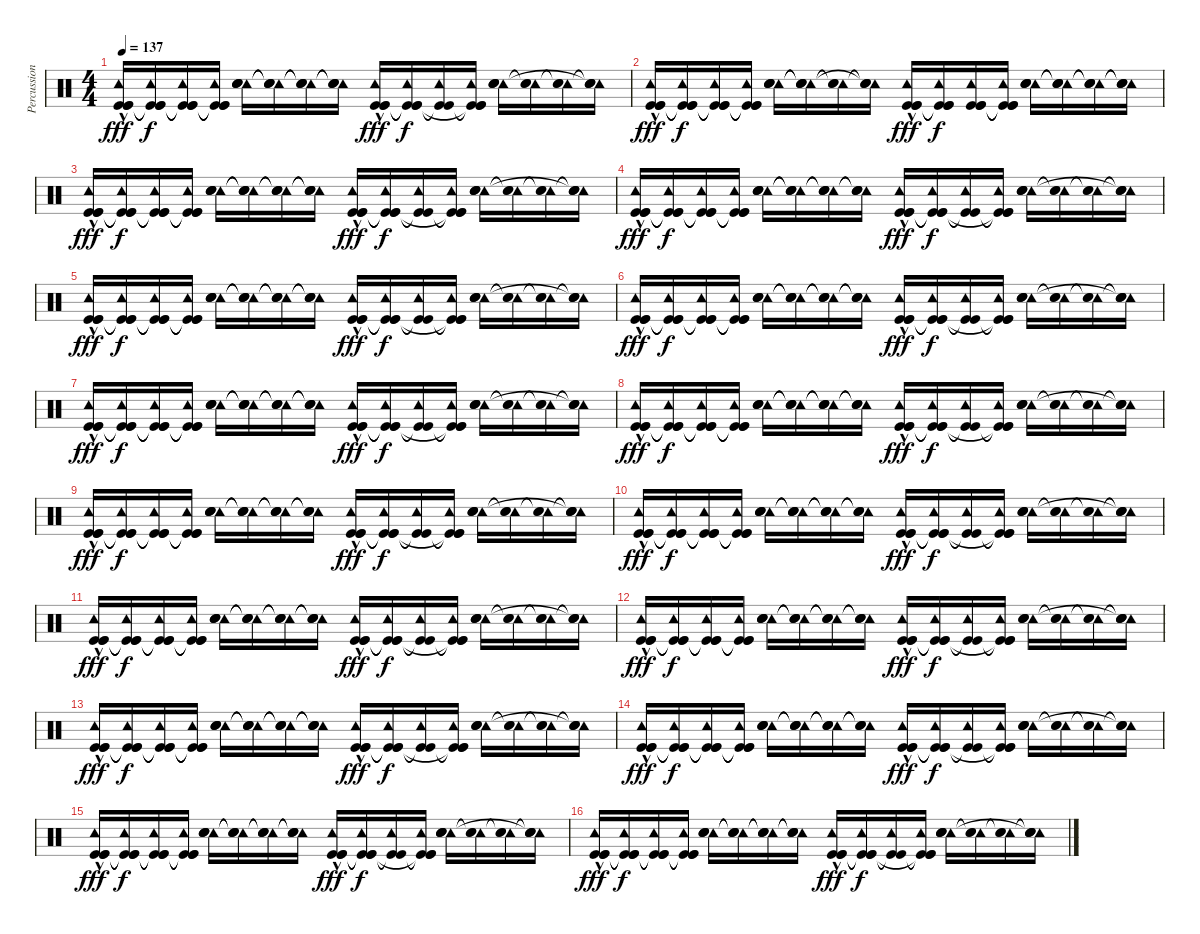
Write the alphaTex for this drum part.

\track ("Percussion" "Percussion") {instrument percussion}
\staff {score}
\articulation defaults
\ts (4 4)
\tempo 137
\clef neutral
\ks c
("Tambourine (hit)"{hac} "Kick (hit)" "Kick (hit)" "Kick (hit)").16{dy fff} ("Tambourine (hit)" "Kick (hit)"{t} "Kick (hit)"{t} "Kick (hit)"{t}).16{dy f} ("Tambourine (hit)" "Kick (hit)"{t} "Kick (hit)"{t} "Kick (hit)"{t}).16 ("Tambourine (hit)" "Kick (hit)"{t} "Kick (hit)"{t} "Kick (hit)"{t}).16 ("Tambourine (hit)" "Snare (hit) 2" "Snare (hit) 2" "Snare (hit) 2").16 ("Tambourine (hit)" "Snare (hit) 2"{t} "Snare (hit) 2"{t} "Snare (hit) 2"{t}).16 ("Tambourine (hit)" "Snare (hit) 2"{t} "Snare (hit) 2"{t} "Snare (hit) 2"{t}).16 ("Tambourine (hit)" "Snare (hit) 2"{t} "Snare (hit) 2"{t} "Snare (hit) 2"{t}).16 ("Tambourine (hit)"{hac} "Kick (hit)" "Kick (hit)" "Kick (hit)").16{dy fff} ("Tambourine (hit)" "Kick (hit)"{t} "Kick (hit)"{t} "Kick (hit)"{t}).16{dy f} ("Tambourine (hit)" "Kick (hit)"{t} "Kick (hit)"{t}).16 ("Tambourine (hit)" "Kick (hit)"{t} "Kick (hit)"{t} "Kick (hit)"{t}).16 ("Tambourine (hit)" "Snare (hit) 2" "Snare (hit) 2" "Snare (hit) 2").16 ("Tambourine (hit)" "Snare (hit) 2"{t} "Snare (hit) 2"{t}).16 ("Tambourine (hit)" "Snare (hit) 2"{t} "Snare (hit) 2"{t}).16 ("Tambourine (hit)" "Snare (hit) 2"{t} "Snare (hit) 2"{t} "Snare (hit) 2"{t}).16 |
("Tambourine (hit)"{hac} "Kick (hit)" "Kick (hit)" "Kick (hit)").16{dy fff} ("Tambourine (hit)" "Kick (hit)"{t} "Kick (hit)"{t} "Kick (hit)"{t}).16{dy f} ("Tambourine (hit)" "Kick (hit)"{t} "Kick (hit)"{t} "Kick (hit)"{t}).16 ("Tambourine (hit)" "Kick (hit)"{t} "Kick (hit)"{t} "Kick (hit)"{t}).16 ("Tambourine (hit)" "Snare (hit) 2" "Snare (hit) 2" "Snare (hit) 2").16 ("Tambourine (hit)" "Snare (hit) 2"{t} "Snare (hit) 2"{t} "Snare (hit) 2"{t}).16 ("Tambourine (hit)" "Snare (hit) 2"{t} "Snare (hit) 2"{t}).16 ("Tambourine (hit)" "Snare (hit) 2"{t} "Snare (hit) 2"{t} "Snare (hit) 2"{t}).16 ("Tambourine (hit)"{hac} "Kick (hit)" "Kick (hit)" "Kick (hit)").16{dy fff} ("Tambourine (hit)" "Kick (hit)"{t} "Kick (hit)"{t} "Kick (hit)"{t}).16{dy f} ("Tambourine (hit)" "Kick (hit)" "Kick (hit)" "Kick (hit)").16 ("Tambourine (hit)" "Kick (hit)"{t} "Kick (hit)"{t} "Kick (hit)"{t}).16 ("Tambourine (hit)" "Snare (hit) 2" "Snare (hit) 2" "Snare (hit) 2").16 ("Tambourine (hit)" "Snare (hit) 2"{t} "Snare (hit) 2"{t} "Snare (hit) 2"{t}).16 ("Tambourine (hit)" "Snare (hit) 2"{t} "Snare (hit) 2"{t} "Snare (hit) 2"{t}).16 ("Tambourine (hit)" "Snare (hit) 2"{t} "Snare (hit) 2"{t} "Snare (hit) 2"{t}).16 |
("Tambourine (hit)"{hac} "Kick (hit)" "Kick (hit)" "Kick (hit)").16{dy fff} ("Tambourine (hit)" "Kick (hit)"{t} "Kick (hit)"{t} "Kick (hit)"{t}).16{dy f} ("Tambourine (hit)" "Kick (hit)"{t} "Kick (hit)"{t} "Kick (hit)"{t}).16 ("Tambourine (hit)" "Kick (hit)"{t} "Kick (hit)"{t} "Kick (hit)"{t}).16 ("Tambourine (hit)" "Snare (hit) 2" "Snare (hit) 2" "Snare (hit) 2").16 ("Tambourine (hit)" "Snare (hit) 2"{t} "Snare (hit) 2"{t} "Snare (hit) 2"{t}).16 ("Tambourine (hit)" "Snare (hit) 2"{t} "Snare (hit) 2"{t} "Snare (hit) 2"{t}).16 ("Tambourine (hit)" "Snare (hit) 2"{t} "Snare (hit) 2"{t} "Snare (hit) 2"{t}).16 ("Tambourine (hit)"{hac} "Kick (hit)" "Kick (hit)" "Kick (hit)").16{dy fff} ("Tambourine (hit)" "Kick (hit)"{t} "Kick (hit)"{t} "Kick (hit)"{t}).16{dy f} ("Tambourine (hit)" "Kick (hit)"{t} "Kick (hit)"{t}).16 ("Tambourine (hit)" "Kick (hit)"{t} "Kick (hit)"{t} "Kick (hit)"{t}).16 ("Tambourine (hit)" "Snare (hit) 2" "Snare (hit) 2" "Snare (hit) 2").16 ("Tambourine (hit)" "Snare (hit) 2"{t} "Snare (hit) 2"{t}).16 ("Tambourine (hit)" "Snare (hit) 2"{t} "Snare (hit) 2"{t}).16 ("Tambourine (hit)" "Snare (hit) 2"{t} "Snare (hit) 2"{t} "Snare (hit) 2"{t}).16 |
("Tambourine (hit)"{hac} "Kick (hit)" "Kick (hit)" "Kick (hit)").16{dy fff} ("Tambourine (hit)" "Kick (hit)"{t} "Kick (hit)"{t} "Kick (hit)"{t}).16{dy f} ("Tambourine (hit)" "Kick (hit)"{t} "Kick (hit)"{t} "Kick (hit)"{t}).16 ("Tambourine (hit)" "Kick (hit)"{t} "Kick (hit)"{t} "Kick (hit)"{t}).16 ("Tambourine (hit)" "Snare (hit) 2" "Snare (hit) 2" "Snare (hit) 2").16 ("Tambourine (hit)" "Snare (hit) 2"{t} "Snare (hit) 2"{t} "Snare (hit) 2"{t}).16 ("Tambourine (hit)" "Snare (hit) 2"{t} "Snare (hit) 2"{t} "Snare (hit) 2"{t}).16 ("Tambourine (hit)" "Snare (hit) 2"{t} "Snare (hit) 2"{t} "Snare (hit) 2"{t}).16 ("Tambourine (hit)"{hac} "Kick (hit)" "Kick (hit)" "Kick (hit)").16{dy fff} ("Tambourine (hit)" "Kick (hit)"{t} "Kick (hit)"{t} "Kick (hit)"{t}).16{dy f} ("Tambourine (hit)" "Kick (hit)"{t} "Kick (hit)"{t}).16 ("Tambourine (hit)" "Kick (hit)"{t} "Kick (hit)"{t} "Kick (hit)"{t}).16 ("Tambourine (hit)" "Snare (hit) 2" "Snare (hit) 2" "Snare (hit) 2").16 ("Tambourine (hit)" "Snare (hit) 2"{t} "Snare (hit) 2"{t}).16 ("Tambourine (hit)" "Snare (hit) 2"{t} "Snare (hit) 2"{t}).16 ("Tambourine (hit)" "Snare (hit) 2"{t} "Snare (hit) 2"{t} "Snare (hit) 2"{t}).16 |
("Tambourine (hit)"{hac} "Kick (hit)" "Kick (hit)" "Kick (hit)").16{dy fff} ("Tambourine (hit)" "Kick (hit)"{t} "Kick (hit)"{t} "Kick (hit)"{t}).16{dy f} ("Tambourine (hit)" "Kick (hit)"{t} "Kick (hit)"{t} "Kick (hit)"{t}).16 ("Tambourine (hit)" "Kick (hit)"{t} "Kick (hit)"{t} "Kick (hit)"{t}).16 ("Tambourine (hit)" "Snare (hit) 2" "Snare (hit) 2" "Snare (hit) 2").16 ("Tambourine (hit)" "Snare (hit) 2"{t} "Snare (hit) 2"{t} "Snare (hit) 2"{t}).16 ("Tambourine (hit)" "Snare (hit) 2"{t} "Snare (hit) 2"{t} "Snare (hit) 2"{t}).16 ("Tambourine (hit)" "Snare (hit) 2"{t} "Snare (hit) 2"{t} "Snare (hit) 2"{t}).16 ("Tambourine (hit)"{hac} "Kick (hit)" "Kick (hit)" "Kick (hit)").16{dy fff} ("Tambourine (hit)" "Kick (hit)"{t} "Kick (hit)"{t} "Kick (hit)"{t}).16{dy f} ("Tambourine (hit)" "Kick (hit)"{t} "Kick (hit)"{t}).16 ("Tambourine (hit)" "Kick (hit)"{t} "Kick (hit)"{t} "Kick (hit)"{t}).16 ("Tambourine (hit)" "Snare (hit) 2" "Snare (hit) 2" "Snare (hit) 2").16 ("Tambourine (hit)" "Snare (hit) 2"{t} "Snare (hit) 2"{t}).16 ("Tambourine (hit)" "Snare (hit) 2"{t} "Snare (hit) 2"{t}).16 ("Tambourine (hit)" "Snare (hit) 2"{t} "Snare (hit) 2"{t} "Snare (hit) 2"{t}).16 |
("Tambourine (hit)"{hac} "Kick (hit)" "Kick (hit)" "Kick (hit)").16{dy fff} ("Tambourine (hit)" "Kick (hit)"{t} "Kick (hit)"{t} "Kick (hit)"{t}).16{dy f} ("Tambourine (hit)" "Kick (hit)"{t} "Kick (hit)"{t} "Kick (hit)"{t}).16 ("Tambourine (hit)" "Kick (hit)"{t} "Kick (hit)"{t} "Kick (hit)"{t}).16 ("Tambourine (hit)" "Snare (hit) 2" "Snare (hit) 2" "Snare (hit) 2").16 ("Tambourine (hit)" "Snare (hit) 2"{t} "Snare (hit) 2"{t} "Snare (hit) 2"{t}).16 ("Tambourine (hit)" "Snare (hit) 2"{t} "Snare (hit) 2"{t} "Snare (hit) 2"{t}).16 ("Tambourine (hit)" "Snare (hit) 2"{t} "Snare (hit) 2"{t} "Snare (hit) 2"{t}).16 ("Tambourine (hit)"{hac} "Kick (hit)" "Kick (hit)" "Kick (hit)").16{dy fff} ("Tambourine (hit)" "Kick (hit)"{t} "Kick (hit)"{t} "Kick (hit)"{t}).16{dy f} ("Tambourine (hit)" "Kick (hit)"{t} "Kick (hit)"{t}).16 ("Tambourine (hit)" "Kick (hit)"{t} "Kick (hit)"{t} "Kick (hit)"{t}).16 ("Tambourine (hit)" "Snare (hit) 2" "Snare (hit) 2" "Snare (hit) 2").16 ("Tambourine (hit)" "Snare (hit) 2"{t} "Snare (hit) 2"{t}).16 ("Tambourine (hit)" "Snare (hit) 2"{t} "Snare (hit) 2"{t}).16 ("Tambourine (hit)" "Snare (hit) 2"{t} "Snare (hit) 2"{t} "Snare (hit) 2"{t}).16 |
("Tambourine (hit)"{hac} "Kick (hit)" "Kick (hit)" "Kick (hit)").16{dy fff} ("Tambourine (hit)" "Kick (hit)"{t} "Kick (hit)"{t} "Kick (hit)"{t}).16{dy f} ("Tambourine (hit)" "Kick (hit)"{t} "Kick (hit)"{t} "Kick (hit)"{t}).16 ("Tambourine (hit)" "Kick (hit)"{t} "Kick (hit)"{t} "Kick (hit)"{t}).16 ("Tambourine (hit)" "Snare (hit) 2" "Snare (hit) 2" "Snare (hit) 2").16 ("Tambourine (hit)" "Snare (hit) 2"{t} "Snare (hit) 2"{t} "Snare (hit) 2"{t}).16 ("Tambourine (hit)" "Snare (hit) 2"{t} "Snare (hit) 2"{t} "Snare (hit) 2"{t}).16 ("Tambourine (hit)" "Snare (hit) 2"{t} "Snare (hit) 2"{t} "Snare (hit) 2"{t}).16 ("Tambourine (hit)"{hac} "Kick (hit)" "Kick (hit)" "Kick (hit)").16{dy fff} ("Tambourine (hit)" "Kick (hit)"{t} "Kick (hit)"{t} "Kick (hit)"{t}).16{dy f} ("Tambourine (hit)" "Kick (hit)"{t} "Kick (hit)"{t}).16 ("Tambourine (hit)" "Kick (hit)"{t} "Kick (hit)"{t} "Kick (hit)"{t}).16 ("Tambourine (hit)" "Snare (hit) 2" "Snare (hit) 2" "Snare (hit) 2").16 ("Tambourine (hit)" "Snare (hit) 2"{t} "Snare (hit) 2"{t}).16 ("Tambourine (hit)" "Snare (hit) 2"{t} "Snare (hit) 2"{t}).16 ("Tambourine (hit)" "Snare (hit) 2"{t} "Snare (hit) 2"{t} "Snare (hit) 2"{t}).16 |
("Tambourine (hit)"{hac} "Kick (hit)" "Kick (hit)" "Kick (hit)").16{dy fff} ("Tambourine (hit)" "Kick (hit)"{t} "Kick (hit)"{t} "Kick (hit)"{t}).16{dy f} ("Tambourine (hit)" "Kick (hit)"{t} "Kick (hit)"{t} "Kick (hit)"{t}).16 ("Tambourine (hit)" "Kick (hit)"{t} "Kick (hit)"{t} "Kick (hit)"{t}).16 ("Tambourine (hit)" "Snare (hit) 2" "Snare (hit) 2" "Snare (hit) 2").16 ("Tambourine (hit)" "Snare (hit) 2"{t} "Snare (hit) 2"{t} "Snare (hit) 2"{t}).16 ("Tambourine (hit)" "Snare (hit) 2"{t} "Snare (hit) 2"{t} "Snare (hit) 2"{t}).16 ("Tambourine (hit)" "Snare (hit) 2"{t} "Snare (hit) 2"{t} "Snare (hit) 2"{t}).16 ("Tambourine (hit)"{hac} "Kick (hit)" "Kick (hit)" "Kick (hit)").16{dy fff} ("Tambourine (hit)" "Kick (hit)"{t} "Kick (hit)"{t} "Kick (hit)"{t}).16{dy f} ("Tambourine (hit)" "Kick (hit)"{t} "Kick (hit)"{t}).16 ("Tambourine (hit)" "Kick (hit)"{t} "Kick (hit)"{t} "Kick (hit)"{t}).16 ("Tambourine (hit)" "Snare (hit) 2" "Snare (hit) 2" "Snare (hit) 2").16 ("Tambourine (hit)" "Snare (hit) 2"{t} "Snare (hit) 2"{t}).16 ("Tambourine (hit)" "Snare (hit) 2"{t} "Snare (hit) 2"{t}).16 ("Tambourine (hit)" "Snare (hit) 2"{t} "Snare (hit) 2"{t} "Snare (hit) 2"{t}).16 |
("Tambourine (hit)"{hac} "Kick (hit)" "Kick (hit)" "Kick (hit)").16{dy fff} ("Tambourine (hit)" "Kick (hit)"{t} "Kick (hit)"{t} "Kick (hit)"{t}).16{dy f} ("Tambourine (hit)" "Kick (hit)"{t} "Kick (hit)"{t} "Kick (hit)"{t}).16 ("Tambourine (hit)" "Kick (hit)"{t} "Kick (hit)"{t} "Kick (hit)"{t}).16 ("Tambourine (hit)" "Snare (hit) 2" "Snare (hit) 2" "Snare (hit) 2").16 ("Tambourine (hit)" "Snare (hit) 2"{t} "Snare (hit) 2"{t} "Snare (hit) 2"{t}).16 ("Tambourine (hit)" "Snare (hit) 2"{t} "Snare (hit) 2"{t} "Snare (hit) 2"{t}).16 ("Tambourine (hit)" "Snare (hit) 2"{t} "Snare (hit) 2"{t} "Snare (hit) 2"{t}).16 ("Tambourine (hit)"{hac} "Kick (hit)" "Kick (hit)" "Kick (hit)").16{dy fff} ("Tambourine (hit)" "Kick (hit)"{t} "Kick (hit)"{t} "Kick (hit)"{t}).16{dy f} ("Tambourine (hit)" "Kick (hit)"{t} "Kick (hit)"{t}).16 ("Tambourine (hit)" "Kick (hit)"{t} "Kick (hit)"{t} "Kick (hit)"{t}).16 ("Tambourine (hit)" "Snare (hit) 2" "Snare (hit) 2" "Snare (hit) 2").16 ("Tambourine (hit)" "Snare (hit) 2"{t} "Snare (hit) 2"{t}).16 ("Tambourine (hit)" "Snare (hit) 2"{t} "Snare (hit) 2"{t}).16 ("Tambourine (hit)" "Snare (hit) 2"{t} "Snare (hit) 2"{t} "Snare (hit) 2"{t}).16 |
("Tambourine (hit)"{hac} "Kick (hit)" "Kick (hit)" "Kick (hit)").16{dy fff} ("Tambourine (hit)" "Kick (hit)"{t} "Kick (hit)"{t} "Kick (hit)"{t}).16{dy f} ("Tambourine (hit)" "Kick (hit)"{t} "Kick (hit)"{t} "Kick (hit)"{t}).16 ("Tambourine (hit)" "Kick (hit)"{t} "Kick (hit)"{t} "Kick (hit)"{t}).16 ("Tambourine (hit)" "Snare (hit) 2" "Snare (hit) 2" "Snare (hit) 2").16 ("Tambourine (hit)" "Snare (hit) 2"{t} "Snare (hit) 2"{t} "Snare (hit) 2"{t}).16 ("Tambourine (hit)" "Snare (hit) 2"{t} "Snare (hit) 2"{t} "Snare (hit) 2"{t}).16 ("Tambourine (hit)" "Snare (hit) 2"{t} "Snare (hit) 2"{t} "Snare (hit) 2"{t}).16 ("Tambourine (hit)"{hac} "Kick (hit)" "Kick (hit)" "Kick (hit)").16{dy fff} ("Tambourine (hit)" "Kick (hit)"{t} "Kick (hit)"{t} "Kick (hit)"{t}).16{dy f} ("Tambourine (hit)" "Kick (hit)"{t} "Kick (hit)"{t}).16 ("Tambourine (hit)" "Kick (hit)"{t} "Kick (hit)"{t} "Kick (hit)"{t}).16 ("Tambourine (hit)" "Snare (hit) 2" "Snare (hit) 2" "Snare (hit) 2").16 ("Tambourine (hit)" "Snare (hit) 2"{t} "Snare (hit) 2"{t}).16 ("Tambourine (hit)" "Snare (hit) 2"{t} "Snare (hit) 2"{t}).16 ("Tambourine (hit)" "Snare (hit) 2"{t} "Snare (hit) 2"{t} "Snare (hit) 2"{t}).16 |
("Tambourine (hit)"{hac} "Kick (hit)" "Kick (hit)" "Kick (hit)").16{dy fff} ("Tambourine (hit)" "Kick (hit)"{t} "Kick (hit)"{t} "Kick (hit)"{t}).16{dy f} ("Tambourine (hit)" "Kick (hit)"{t} "Kick (hit)"{t} "Kick (hit)"{t}).16 ("Tambourine (hit)" "Kick (hit)"{t} "Kick (hit)"{t} "Kick (hit)"{t}).16 ("Tambourine (hit)" "Snare (hit) 2" "Snare (hit) 2" "Snare (hit) 2").16 ("Tambourine (hit)" "Snare (hit) 2"{t} "Snare (hit) 2"{t} "Snare (hit) 2"{t}).16 ("Tambourine (hit)" "Snare (hit) 2"{t} "Snare (hit) 2"{t} "Snare (hit) 2"{t}).16 ("Tambourine (hit)" "Snare (hit) 2"{t} "Snare (hit) 2"{t} "Snare (hit) 2"{t}).16 ("Tambourine (hit)"{hac} "Kick (hit)" "Kick (hit)" "Kick (hit)").16{dy fff} ("Tambourine (hit)" "Kick (hit)"{t} "Kick (hit)"{t} "Kick (hit)"{t}).16{dy f} ("Tambourine (hit)" "Kick (hit)"{t} "Kick (hit)"{t}).16 ("Tambourine (hit)" "Kick (hit)"{t} "Kick (hit)"{t} "Kick (hit)"{t}).16 ("Tambourine (hit)" "Snare (hit) 2" "Snare (hit) 2" "Snare (hit) 2").16 ("Tambourine (hit)" "Snare (hit) 2"{t} "Snare (hit) 2"{t}).16 ("Tambourine (hit)" "Snare (hit) 2"{t} "Snare (hit) 2"{t}).16 ("Tambourine (hit)" "Snare (hit) 2"{t} "Snare (hit) 2"{t} "Snare (hit) 2"{t}).16 |
("Tambourine (hit)"{hac} "Kick (hit)" "Kick (hit)" "Kick (hit)").16{dy fff} ("Tambourine (hit)" "Kick (hit)"{t} "Kick (hit)"{t} "Kick (hit)"{t}).16{dy f} ("Tambourine (hit)" "Kick (hit)"{t} "Kick (hit)"{t} "Kick (hit)"{t}).16 ("Tambourine (hit)" "Kick (hit)"{t} "Kick (hit)"{t} "Kick (hit)"{t}).16 ("Tambourine (hit)" "Snare (hit) 2" "Snare (hit) 2" "Snare (hit) 2").16 ("Tambourine (hit)" "Snare (hit) 2"{t} "Snare (hit) 2"{t} "Snare (hit) 2"{t}).16 ("Tambourine (hit)" "Snare (hit) 2"{t} "Snare (hit) 2"{t} "Snare (hit) 2"{t}).16 ("Tambourine (hit)" "Snare (hit) 2"{t} "Snare (hit) 2"{t} "Snare (hit) 2"{t}).16 ("Tambourine (hit)"{hac} "Kick (hit)" "Kick (hit)" "Kick (hit)").16{dy fff} ("Tambourine (hit)" "Kick (hit)"{t} "Kick (hit)"{t} "Kick (hit)"{t}).16{dy f} ("Tambourine (hit)" "Kick (hit)"{t} "Kick (hit)"{t}).16 ("Tambourine (hit)" "Kick (hit)"{t} "Kick (hit)"{t} "Kick (hit)"{t}).16 ("Tambourine (hit)" "Snare (hit) 2" "Snare (hit) 2" "Snare (hit) 2").16 ("Tambourine (hit)" "Snare (hit) 2"{t} "Snare (hit) 2"{t}).16 ("Tambourine (hit)" "Snare (hit) 2"{t} "Snare (hit) 2"{t}).16 ("Tambourine (hit)" "Snare (hit) 2"{t} "Snare (hit) 2"{t} "Snare (hit) 2"{t}).16 |
("Tambourine (hit)"{hac} "Kick (hit)" "Kick (hit)" "Kick (hit)").16{dy fff} ("Tambourine (hit)" "Kick (hit)"{t} "Kick (hit)"{t} "Kick (hit)"{t}).16{dy f} ("Tambourine (hit)" "Kick (hit)"{t} "Kick (hit)"{t} "Kick (hit)"{t}).16 ("Tambourine (hit)" "Kick (hit)"{t} "Kick (hit)"{t} "Kick (hit)"{t}).16 ("Tambourine (hit)" "Snare (hit) 2" "Snare (hit) 2" "Snare (hit) 2").16 ("Tambourine (hit)" "Snare (hit) 2"{t} "Snare (hit) 2"{t} "Snare (hit) 2"{t}).16 ("Tambourine (hit)" "Snare (hit) 2"{t} "Snare (hit) 2"{t} "Snare (hit) 2"{t}).16 ("Tambourine (hit)" "Snare (hit) 2"{t} "Snare (hit) 2"{t} "Snare (hit) 2"{t}).16 ("Tambourine (hit)"{hac} "Kick (hit)" "Kick (hit)" "Kick (hit)").16{dy fff} ("Tambourine (hit)" "Kick (hit)"{t} "Kick (hit)"{t} "Kick (hit)"{t}).16{dy f} ("Tambourine (hit)" "Kick (hit)"{t} "Kick (hit)"{t}).16 ("Tambourine (hit)" "Kick (hit)"{t} "Kick (hit)"{t} "Kick (hit)"{t}).16 ("Tambourine (hit)" "Snare (hit) 2" "Snare (hit) 2" "Snare (hit) 2").16 ("Tambourine (hit)" "Snare (hit) 2"{t} "Snare (hit) 2"{t}).16 ("Tambourine (hit)" "Snare (hit) 2"{t} "Snare (hit) 2"{t}).16 ("Tambourine (hit)" "Snare (hit) 2"{t} "Snare (hit) 2"{t} "Snare (hit) 2"{t}).16 |
("Tambourine (hit)"{hac} "Kick (hit)" "Kick (hit)" "Kick (hit)").16{dy fff} ("Tambourine (hit)" "Kick (hit)"{t} "Kick (hit)"{t} "Kick (hit)"{t}).16{dy f} ("Tambourine (hit)" "Kick (hit)"{t} "Kick (hit)"{t} "Kick (hit)"{t}).16 ("Tambourine (hit)" "Kick (hit)"{t} "Kick (hit)"{t} "Kick (hit)"{t}).16 ("Tambourine (hit)" "Snare (hit) 2" "Snare (hit) 2" "Snare (hit) 2").16 ("Tambourine (hit)" "Snare (hit) 2"{t} "Snare (hit) 2"{t} "Snare (hit) 2"{t}).16 ("Tambourine (hit)" "Snare (hit) 2"{t} "Snare (hit) 2"{t} "Snare (hit) 2"{t}).16 ("Tambourine (hit)" "Snare (hit) 2"{t} "Snare (hit) 2"{t} "Snare (hit) 2"{t}).16 ("Tambourine (hit)"{hac} "Kick (hit)" "Kick (hit)" "Kick (hit)").16{dy fff} ("Tambourine (hit)" "Kick (hit)"{t} "Kick (hit)"{t} "Kick (hit)"{t}).16{dy f} ("Tambourine (hit)" "Kick (hit)"{t} "Kick (hit)"{t}).16 ("Tambourine (hit)" "Kick (hit)"{t} "Kick (hit)"{t} "Kick (hit)"{t}).16 ("Tambourine (hit)" "Snare (hit) 2" "Snare (hit) 2" "Snare (hit) 2").16 ("Tambourine (hit)" "Snare (hit) 2"{t} "Snare (hit) 2"{t}).16 ("Tambourine (hit)" "Snare (hit) 2"{t} "Snare (hit) 2"{t}).16 ("Tambourine (hit)" "Snare (hit) 2"{t} "Snare (hit) 2"{t} "Snare (hit) 2"{t}).16 |
("Tambourine (hit)"{hac} "Kick (hit)" "Kick (hit)" "Kick (hit)").16{dy fff} ("Tambourine (hit)" "Kick (hit)"{t} "Kick (hit)"{t} "Kick (hit)"{t}).16{dy f} ("Tambourine (hit)" "Kick (hit)"{t} "Kick (hit)"{t} "Kick (hit)"{t}).16 ("Tambourine (hit)" "Kick (hit)"{t} "Kick (hit)"{t} "Kick (hit)"{t}).16 ("Tambourine (hit)" "Snare (hit) 2" "Snare (hit) 2" "Snare (hit) 2").16 ("Tambourine (hit)" "Snare (hit) 2"{t} "Snare (hit) 2"{t} "Snare (hit) 2"{t}).16 ("Tambourine (hit)" "Snare (hit) 2"{t} "Snare (hit) 2"{t} "Snare (hit) 2"{t}).16 ("Tambourine (hit)" "Snare (hit) 2"{t} "Snare (hit) 2"{t} "Snare (hit) 2"{t}).16 ("Tambourine (hit)"{hac} "Kick (hit)" "Kick (hit)" "Kick (hit)").16{dy fff} ("Tambourine (hit)" "Kick (hit)"{t} "Kick (hit)"{t} "Kick (hit)"{t}).16{dy f} ("Tambourine (hit)" "Kick (hit)"{t} "Kick (hit)"{t}).16 ("Tambourine (hit)" "Kick (hit)"{t} "Kick (hit)"{t} "Kick (hit)"{t}).16 ("Tambourine (hit)" "Snare (hit) 2" "Snare (hit) 2" "Snare (hit) 2").16 ("Tambourine (hit)" "Snare (hit) 2"{t} "Snare (hit) 2"{t}).16 ("Tambourine (hit)" "Snare (hit) 2"{t} "Snare (hit) 2"{t}).16 ("Tambourine (hit)" "Snare (hit) 2"{t} "Snare (hit) 2"{t} "Snare (hit) 2"{t}).16 |
("Tambourine (hit)"{hac} "Kick (hit)" "Kick (hit)" "Kick (hit)").16{dy fff} ("Tambourine (hit)" "Kick (hit)"{t} "Kick (hit)"{t} "Kick (hit)"{t}).16{dy f} ("Tambourine (hit)" "Kick (hit)"{t} "Kick (hit)"{t} "Kick (hit)"{t}).16 ("Tambourine (hit)" "Kick (hit)"{t} "Kick (hit)"{t} "Kick (hit)"{t}).16 ("Tambourine (hit)" "Snare (hit) 2" "Snare (hit) 2" "Snare (hit) 2").16 ("Tambourine (hit)" "Snare (hit) 2"{t} "Snare (hit) 2"{t} "Snare (hit) 2"{t}).16 ("Tambourine (hit)" "Snare (hit) 2"{t} "Snare (hit) 2"{t} "Snare (hit) 2"{t}).16 ("Tambourine (hit)" "Snare (hit) 2"{t} "Snare (hit) 2"{t} "Snare (hit) 2"{t}).16 ("Tambourine (hit)"{hac} "Kick (hit)" "Kick (hit)" "Kick (hit)").16{dy fff} ("Tambourine (hit)" "Kick (hit)"{t} "Kick (hit)"{t} "Kick (hit)"{t}).16{dy f} ("Tambourine (hit)" "Kick (hit)"{t} "Kick (hit)"{t}).16 ("Tambourine (hit)" "Kick (hit)"{t} "Kick (hit)"{t} "Kick (hit)"{t}).16 ("Tambourine (hit)" "Snare (hit) 2" "Snare (hit) 2" "Snare (hit) 2").16 ("Tambourine (hit)" "Snare (hit) 2"{t} "Snare (hit) 2"{t}).16 ("Tambourine (hit)" "Snare (hit) 2"{t} "Snare (hit) 2"{t}).16 ("Tambourine (hit)" "Snare (hit) 2"{t} "Snare (hit) 2"{t} "Snare (hit) 2"{t}).16
